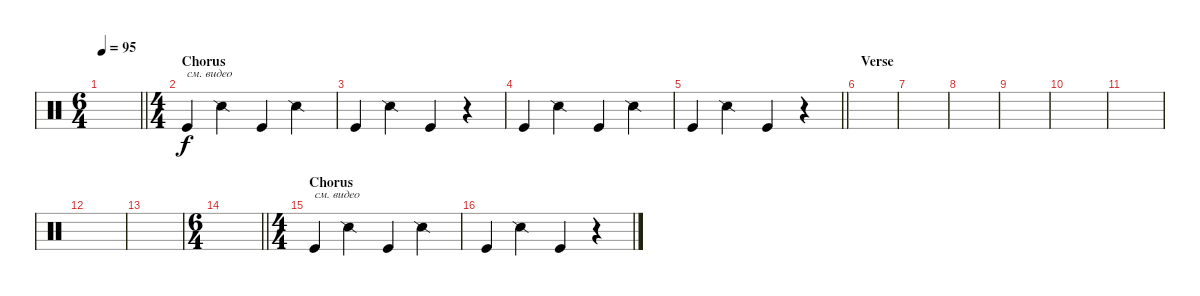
\track "" {instrument percussion}
\staff {score}
\articulation defaults
\ts (6 4)
\tempo 95
\clef neutral
\barLineRight lightlight
\ks c
|
\ts (4 4)
\section ("" "Chorus")
"Kick (hit)".4{txt "см. видео"} "Snare (side stick) 2".4 "Kick (hit)".4 "Snare (side stick) 2".4 |
"Kick (hit)".4 "Snare (side stick) 2".4 "Kick (hit)".4 r.4 |
"Kick (hit)".4 "Snare (side stick) 2".4 "Kick (hit)".4 "Snare (side stick) 2".4 |
\barLineRight lightlight "Kick (hit)".4 "Snare (side stick) 2".4 "Kick (hit)".4
r.4 |
\section ("" "Verse")
|
|
|
|
|
|
|
|
\ts (6 4)
\barLineRight lightlight
|
\ts (4 4)
\section ("" "Chorus")
"Kick (hit)".4{txt "см. видео"} "Snare (side stick) 2".4 "Kick (hit)".4 "Snare (side stick) 2".4 |
"Kick (hit)".4 "Snare (side stick) 2".4 "Kick (hit)".4 r.4
